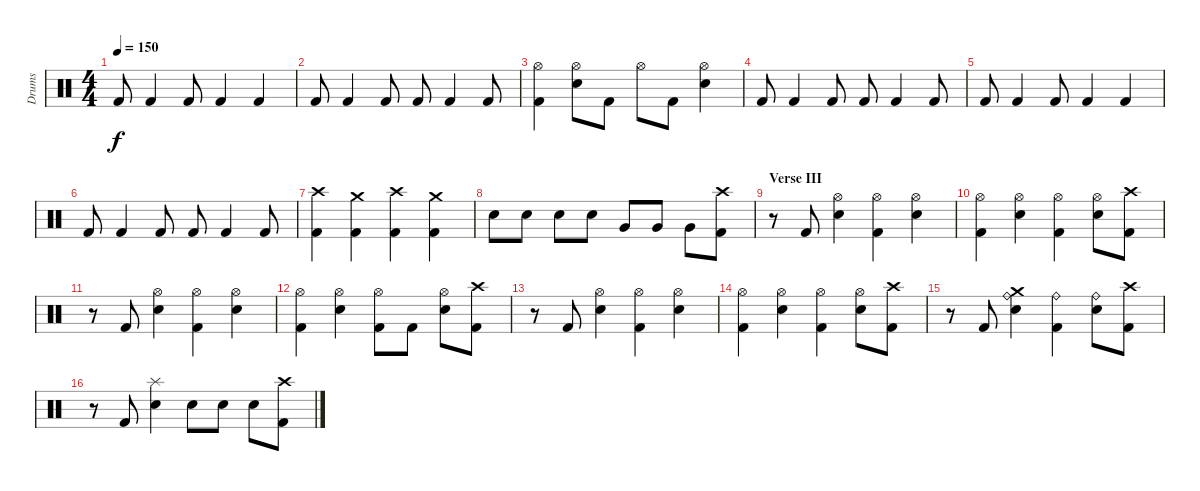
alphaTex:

\track ("Drums" "Drums") {instrument percussion}
\staff {score}
\articulation defaults
\ts (4 4)
\tempo 150
\clef neutral
\ks c "Kick (hit) 2".8{dy f} "Kick (hit) 2".4 "Kick (hit) 2".8 "Kick (hit) 2".4 "Kick (hit) 2".4
|
"Kick (hit) 2".8 "Kick (hit) 2".4 "Kick (hit) 2".8 "Kick (hit) 2".8 "Kick (hit) 2".4 "Kick (hit) 2".8 |
("Kick (hit) 2" "Hi-Hat (open)").4 ("Electric Snare (hit)" "Hi-Hat (open)").8 "Kick (hit) 2".8 "Hi-Hat (open)".8 "Kick (hit) 2".8 ("Electric Snare (hit)" "Hi-Hat (open)").4 |
"Kick (hit) 2".8 "Kick (hit) 2".4 "Kick (hit) 2".8 "Kick (hit) 2".8 "Kick (hit) 2".4 "Kick (hit) 2".8 |
"Kick (hit) 2".8 "Kick (hit) 2".4 "Kick (hit) 2".8 "Kick (hit) 2".4 "Kick (hit) 2".4 |
"Kick (hit) 2".8 "Kick (hit) 2".4 "Kick (hit) 2".8 "Kick (hit) 2".8 "Kick (hit) 2".4 "Kick (hit) 2".8 |
("Kick (hit) 2" "Crash high (hit)").4 ("Kick (hit) 2" "Crash medium (hit)").4 ("Kick (hit) 2" "Crash high (hit)").4 ("Kick (hit) 2" "Crash medium (hit)").4 |
"Electric Snare (hit)".8 "Electric Snare (hit)".8 "Electric Snare (hit)".8 "Electric Snare (hit)".8 "Very Low Tom (hit)".8 "Very Low Tom (hit)".8 "Very Low Tom (hit)".8 ("Kick (hit) 2" "Crash high (hit)").8 |
\section ("" "Verse III")
r.8 "Kick (hit) 2".8 ("Hi-Hat (open)" "Electric Snare (hit)").4 ("Hi-Hat (open)" "Kick (hit) 2").4 ("Hi-Hat (open)" "Electric Snare (hit)").4 |
("Hi-Hat (open)" "Kick (hit) 2").4 ("Hi-Hat (open)" "Electric Snare (hit)").4 ("Hi-Hat (open)" "Kick (hit) 2").4 ("Hi-Hat (open)" "Electric Snare (hit)").8 ("Crash high (hit)" "Kick (hit) 2").8 |
r.8 "Kick (hit) 2".8 ("Hi-Hat (open)" "Electric Snare (hit)").4 ("Hi-Hat (open)" "Kick (hit) 2").4 ("Hi-Hat (open)" "Electric Snare (hit)").4 |
("Hi-Hat (open)" "Kick (hit) 2").4 ("Hi-Hat (open)" "Electric Snare (hit)").4 ("Hi-Hat (open)" "Kick (hit) 2").8 "Kick (hit) 2".8 ("Hi-Hat (open)" "Electric Snare (hit)").8 ("Crash high (hit)" "Kick (hit) 2").8 |
r.8 "Kick (hit) 2".8 ("Hi-Hat (open)" "Electric Snare (hit)").4 ("Hi-Hat (open)" "Kick (hit) 2").4 ("Hi-Hat (open)" "Electric Snare (hit)").4 |
("Hi-Hat (open)" "Kick (hit) 2").4 ("Hi-Hat (open)" "Electric Snare (hit)").4 ("Hi-Hat (open)" "Kick (hit) 2").4 ("Hi-Hat (open)" "Electric Snare (hit)").8 ("Crash high (hit)" "Kick (hit) 2").8 |
r.8 "Kick (hit) 2".8 ("Ride (bell)" "Electric Snare (hit)" "Crash medium (hit)").4 ("Ride (bell)" "Kick (hit) 2").4 ("Ride (bell)" "Electric Snare (hit)").8 ("Crash high (hit)" "Kick (hit) 2").8 |
r.8 "Kick (hit) 2".8 ("Electric Snare (hit)" "Splash (hit)").4 "Electric Snare (hit)".8 "Electric Snare (hit)".8 "Electric Snare (hit)".8 ("Kick (hit) 2" "Crash high (hit)").8
